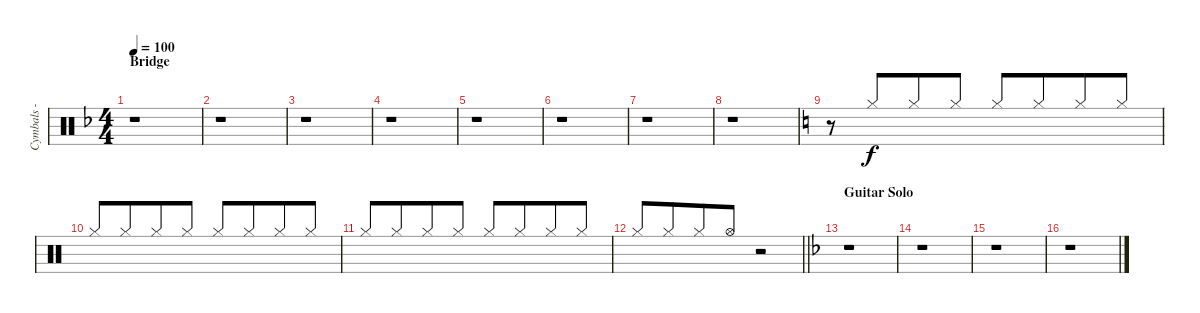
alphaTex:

\track ("Cymbals - Hi-Hat" "Cymbals - ") {instrument percussion}
\staff {score}
\articulation defaults
\ts (4 4)
\section ("" "Bridge")
\tempo 100
\clef neutral
\ks dminor
r.1{dy mf} |
r.1 |
r.1 |
r.1 |
r.1 |
r.1 |
r.1 |
r.1 |
\ks aminor
r.8 "Hi-Hat (closed)".8{dy f beam Up beam merge} "Hi-Hat (closed)".8{beam Up} "Hi-Hat (closed)".8{beam Up} "Hi-Hat (closed)".8{beam Up} "Hi-Hat (closed)".8{beam Up beam merge} "Hi-Hat (closed)".8{beam Up} "Hi-Hat (closed)".8{beam Up} |
"Hi-Hat (closed)".8{beam Up} "Hi-Hat (closed)".8{beam Up beam merge} "Hi-Hat (closed)".8{beam Up} "Hi-Hat (closed)".8{beam Up} "Hi-Hat (closed)".8{beam Up} "Hi-Hat (closed)".8{beam Up beam merge} "Hi-Hat (closed)".8{beam Up} "Hi-Hat (closed)".8{beam Up} |
"Hi-Hat (closed)".8{beam Up} "Hi-Hat (closed)".8{beam Up beam merge} "Hi-Hat (closed)".8{beam Up} "Hi-Hat (closed)".8{beam Up} "Hi-Hat (closed)".8{beam Up} "Hi-Hat (closed)".8{beam Up beam merge} "Hi-Hat (closed)".8{beam Up} "Hi-Hat (closed)".8{beam Up} |
\barLineRight lightlight "Hi-Hat (closed)".8{beam Up} "Hi-Hat (closed)".8{beam Up beam merge} "Hi-Hat (closed)".8{beam Up} "Hi-Hat (open)".8{beam Up}
r.2 |
\section ("" "Guitar Solo")
\ks dminor
r.1 |
r.1 |
r.1 |
r.1
